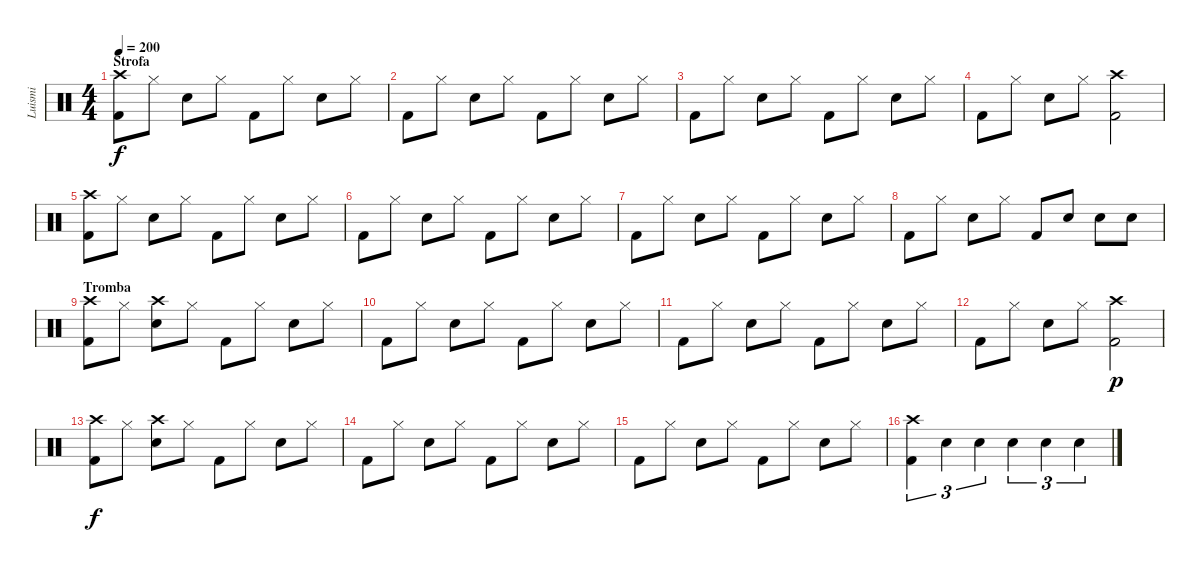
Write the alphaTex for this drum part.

\track ("Luismi" "Luismi") {instrument percussion}
\staff {score}
\articulation defaults
\ts (4 4)
\section ("" "Strofa")
\tempo 200
\clef neutral
\ks c
("Kick (hit) 2" "Crash high (hit)").8{dy f} "Hi-Hat (closed)".8 "Electric Snare (hit)".8 "Hi-Hat (closed)".8 "Kick (hit) 2".8 "Hi-Hat (closed)".8 "Electric Snare (hit)".8 "Hi-Hat (closed)".8 |
"Kick (hit) 2".8 "Hi-Hat (closed)".8 "Electric Snare (hit)".8 "Hi-Hat (closed)".8 "Kick (hit) 2".8 "Hi-Hat (closed)".8 "Electric Snare (hit)".8 "Hi-Hat (closed)".8 |
"Kick (hit) 2".8 "Hi-Hat (closed)".8 "Electric Snare (hit)".8 "Hi-Hat (closed)".8 "Kick (hit) 2".8 "Hi-Hat (closed)".8 "Electric Snare (hit)".8 "Hi-Hat (closed)".8 |
"Kick (hit) 2".8 "Hi-Hat (closed)".8 "Electric Snare (hit)".8 "Hi-Hat (closed)".8 ("Kick (hit) 2" "Crash high (hit)").2 |
("Kick (hit) 2" "Crash high (hit)").8 "Hi-Hat (closed)".8 "Electric Snare (hit)".8 "Hi-Hat (closed)".8 "Kick (hit) 2".8 "Hi-Hat (closed)".8 "Electric Snare (hit)".8 "Hi-Hat (closed)".8 |
"Kick (hit) 2".8 "Hi-Hat (closed)".8 "Electric Snare (hit)".8 "Hi-Hat (closed)".8 "Kick (hit) 2".8 "Hi-Hat (closed)".8 "Electric Snare (hit)".8 "Hi-Hat (closed)".8 |
"Kick (hit) 2".8 "Hi-Hat (closed)".8 "Electric Snare (hit)".8 "Hi-Hat (closed)".8 "Kick (hit) 2".8 "Hi-Hat (closed)".8 "Electric Snare (hit)".8 "Hi-Hat (closed)".8 |
"Kick (hit) 2".8 "Hi-Hat (closed)".8 "Electric Snare (hit)".8 "Hi-Hat (closed)".8 "Kick (hit) 2".8 "Electric Snare (hit)".8 "Electric Snare (hit)".8 "Electric Snare (hit)".8 |
\section ("" "Tromba")
("Kick (hit) 2" "Crash high (hit)").8 "Hi-Hat (closed)".8 ("Electric Snare (hit)" "Crash high (hit)").8 "Hi-Hat (closed)".8 "Kick (hit) 2".8 "Hi-Hat (closed)".8 "Electric Snare (hit)".8 "Hi-Hat (closed)".8 |
"Kick (hit) 2".8 "Hi-Hat (closed)".8 "Electric Snare (hit)".8 "Hi-Hat (closed)".8 "Kick (hit) 2".8 "Hi-Hat (closed)".8 "Electric Snare (hit)".8 "Hi-Hat (closed)".8 |
"Kick (hit) 2".8 "Hi-Hat (closed)".8 "Electric Snare (hit)".8 "Hi-Hat (closed)".8 "Kick (hit) 2".8 "Hi-Hat (closed)".8 "Electric Snare (hit)".8 "Hi-Hat (closed)".8 |
"Kick (hit) 2".8 "Hi-Hat (closed)".8 "Electric Snare (hit)".8 "Hi-Hat (closed)".8 ("Kick (hit) 2" "Crash high (hit)").2{dy p} |
("Kick (hit) 2" "Crash high (hit)").8{dy f} "Hi-Hat (closed)".8 ("Electric Snare (hit)" "Crash high (hit)").8 "Hi-Hat (closed)".8 "Kick (hit) 2".8 "Hi-Hat (closed)".8 "Electric Snare (hit)".8 "Hi-Hat (closed)".8 |
"Kick (hit) 2".8 "Hi-Hat (closed)".8 "Electric Snare (hit)".8 "Hi-Hat (closed)".8 "Kick (hit) 2".8 "Hi-Hat (closed)".8 "Electric Snare (hit)".8 "Hi-Hat (closed)".8 |
"Kick (hit) 2".8 "Hi-Hat (closed)".8 "Electric Snare (hit)".8 "Hi-Hat (closed)".8 "Kick (hit) 2".8 "Hi-Hat (closed)".8 "Electric Snare (hit)".8 "Hi-Hat (closed)".8 |
("Kick (hit) 2" "Crash high (hit)").4{tu (3 2)} "Electric Snare (hit)".4{tu (3 2)} "Electric Snare (hit)".4{tu (3 2)} "Electric Snare (hit)".4{tu (3 2)} "Electric Snare (hit)".4{tu (3 2)} "Electric Snare (hit)".4{tu (3 2)}
